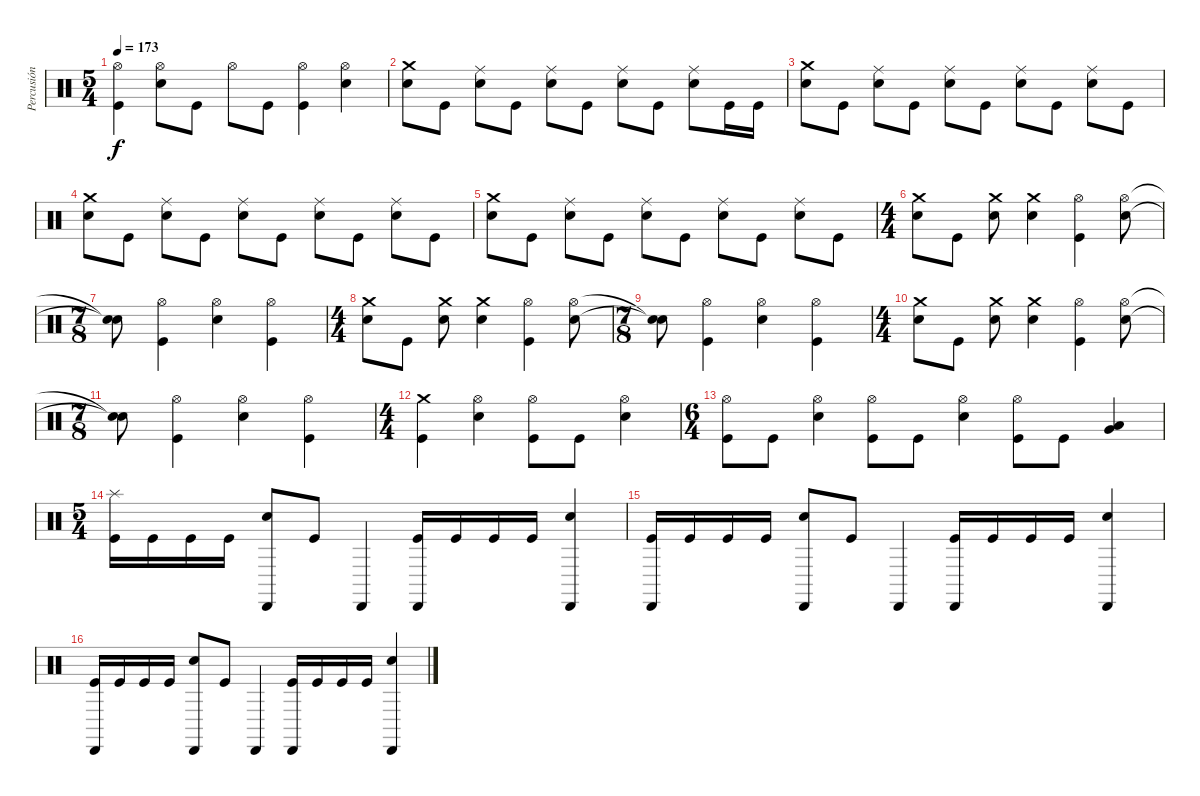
\track ("Percusión" "Percusión") {instrument percussion}
\staff {score}
\articulation defaults
\ts (5 4)
\tempo 173
\clef neutral
\ks c
("Hi-Hat (open)" "Kick (hit)").4{dy f} ("Hi-Hat (open)" "Electric Snare (hit)").8 "Kick (hit)".8 "Hi-Hat (open)".8 "Kick (hit)".8 ("Hi-Hat (open)" "Kick (hit)").4 ("Hi-Hat (open)" "Electric Snare (hit)").4 |
("Crash medium (hit)" "Electric Snare (hit)").8 "Kick (hit)".8 ("Ride (middle)" "Electric Snare (hit)").8 "Kick (hit)".8 ("Ride (middle)" "Electric Snare (hit)").8 "Kick (hit)".8 ("Ride (middle)" "Electric Snare (hit)").8 "Kick (hit)".8 ("Ride (middle)" "Electric Snare (hit)").8 "Kick (hit)".16 "Kick (hit)".16 |
("Crash medium (hit)" "Electric Snare (hit)").8 "Kick (hit)".8 ("Ride (middle)" "Electric Snare (hit)").8 "Kick (hit)".8 ("Ride (middle)" "Electric Snare (hit)").8 "Kick (hit)".8 ("Ride (middle)" "Electric Snare (hit)").8 "Kick (hit)".8 ("Ride (middle)" "Electric Snare (hit)").8 "Kick (hit)".8 |
("Crash medium (hit)" "Electric Snare (hit)").8 "Kick (hit)".8 ("Ride (middle)" "Electric Snare (hit)").8 "Kick (hit)".8 ("Ride (middle)" "Electric Snare (hit)").8 "Kick (hit)".8 ("Ride (middle)" "Electric Snare (hit)").8 "Kick (hit)".8 ("Ride (middle)" "Electric Snare (hit)").8 "Kick (hit)".8 |
("Crash medium (hit)" "Electric Snare (hit)").8 "Kick (hit)".8 ("Ride (middle)" "Electric Snare (hit)").8 "Kick (hit)".8 ("Ride (middle)" "Electric Snare (hit)").8 "Kick (hit)".8 ("Ride (middle)" "Electric Snare (hit)").8 "Kick (hit)".8 ("Ride (middle)" "Electric Snare (hit)").8 "Kick (hit)".8 |
\ts (4 4)
("Crash medium (hit)" "Electric Snare (hit)").8 "Kick (hit)".8 ("Crash medium (hit)" "Electric Snare (hit)").8 ("Crash medium (hit)" "Electric Snare (hit)").4 ("Hi-Hat (open)" "Kick (hit)").4 ("Hi-Hat (open)" "Electric Snare (hit)").8 |
\ts (7 8)
("Snare (hit)"{t} "Snare (hit)"{t}).8 ("Hi-Hat (open)" "Kick (hit)").4 ("Hi-Hat (open)" "Electric Snare (hit)").4 ("Hi-Hat (open)" "Kick (hit)").4 |
\ts (4 4)
("Crash medium (hit)" "Electric Snare (hit)").8 "Kick (hit)".8 ("Crash medium (hit)" "Electric Snare (hit)").8 ("Crash medium (hit)" "Electric Snare (hit)").4 ("Hi-Hat (open)" "Kick (hit)").4 ("Hi-Hat (open)" "Electric Snare (hit)").8 |
\ts (7 8)
("Snare (hit)"{t} "Snare (hit)"{t}).8 ("Hi-Hat (open)" "Kick (hit)").4 ("Hi-Hat (open)" "Electric Snare (hit)").4 ("Hi-Hat (open)" "Kick (hit)").4 |
\ts (4 4)
("Crash medium (hit)" "Electric Snare (hit)").8 "Kick (hit)".8 ("Crash medium (hit)" "Electric Snare (hit)").8 ("Crash medium (hit)" "Electric Snare (hit)").4 ("Hi-Hat (open)" "Kick (hit)").4 ("Hi-Hat (open)" "Electric Snare (hit)").8 |
\ts (7 8)
("Snare (hit)"{t} "Snare (hit)"{t}).8 ("Hi-Hat (open)" "Kick (hit)").4 ("Hi-Hat (open)" "Electric Snare (hit)").4 ("Hi-Hat (open)" "Kick (hit)").4 |
\ts (4 4)
("Crash medium (hit)" "Kick (hit)").4 ("Hi-Hat (open)" "Electric Snare (hit)").4 ("Hi-Hat (open)" "Kick (hit)").8 "Kick (hit)".8 ("Hi-Hat (open)" "Electric Snare (hit)").4 |
\ts (6 4)
("Hi-Hat (open)" "Kick (hit)").8 "Kick (hit)".8 ("Hi-Hat (open)" "Electric Snare (hit)").4 ("Hi-Hat (open)" "Kick (hit)").8 "Kick (hit)".8 ("Hi-Hat (open)" "Electric Snare (hit)").4 ("Hi-Hat (open)" "Kick (hit)").8 "Kick (hit)".8 ("Very Low Tom (hit)" "Low Tom (hit)").4 |
\ts (5 4)
("Splash (hit)" "Kick (hit)").16 "Kick (hit)".16 "Kick (hit)".16 "Kick (hit)".16 ("Cabasa (hit)" "Electric Snare (hit)").8 "Kick (hit)".8 "Cabasa (hit)".4 ("Cabasa (hit)" "Kick (hit)").16 "Kick (hit)".16 "Kick (hit)".16 "Kick (hit)".16 ("Cabasa (hit)" "Electric Snare (hit)").4 |
("Cabasa (hit)" "Kick (hit)").16 "Kick (hit)".16 "Kick (hit)".16 "Kick (hit)".16 ("Cabasa (hit)" "Electric Snare (hit)").8 "Kick (hit)".8 "Cabasa (hit)".4 ("Cabasa (hit)" "Kick (hit)").16 "Kick (hit)".16 "Kick (hit)".16 "Kick (hit)".16 ("Cabasa (hit)" "Electric Snare (hit)").4 |
("Cabasa (hit)" "Kick (hit)").16 "Kick (hit)".16 "Kick (hit)".16 "Kick (hit)".16 ("Cabasa (hit)" "Electric Snare (hit)").8 "Kick (hit)".8 "Cabasa (hit)".4 ("Cabasa (hit)" "Kick (hit)").16 "Kick (hit)".16 "Kick (hit)".16 "Kick (hit)".16 ("Cabasa (hit)" "Electric Snare (hit)").4
